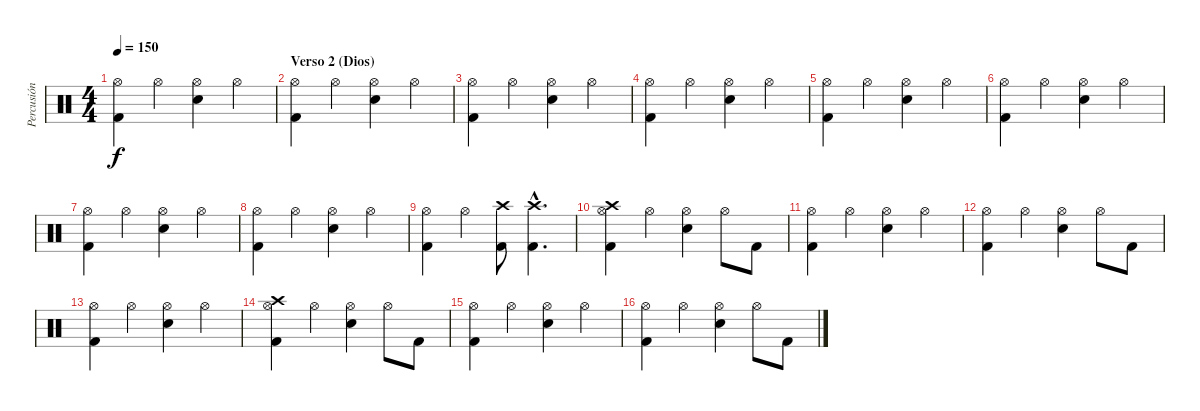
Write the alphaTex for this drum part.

\track ("Percusión" "Percusión") {instrument percussion}
\staff {score}
\articulation defaults
\ts (4 4)
\tempo 150
\clef neutral
\ks c
("Hi-Hat (open)" "Kick (hit) 2").4{dy f} "Hi-Hat (open)".4 ("Hi-Hat (open)" "Snare (hit) 2").4 "Hi-Hat (open)".4 |
\section ("" "Verso 2 (Dios)")
("Hi-Hat (open)" "Kick (hit) 2").4 "Hi-Hat (open)".4 ("Hi-Hat (open)" "Snare (hit) 2").4 "Hi-Hat (open)".4 |
("Hi-Hat (open)" "Kick (hit) 2").4 "Hi-Hat (open)".4 ("Hi-Hat (open)" "Snare (hit) 2").4 "Hi-Hat (open)".4 |
("Hi-Hat (open)" "Kick (hit) 2").4 "Hi-Hat (open)".4 ("Hi-Hat (open)" "Snare (hit) 2").4 "Hi-Hat (open)".4 |
("Hi-Hat (open)" "Kick (hit) 2").4 "Hi-Hat (open)".4 ("Hi-Hat (open)" "Snare (hit) 2").4 "Hi-Hat (open)".4 |
("Hi-Hat (open)" "Kick (hit) 2").4 "Hi-Hat (open)".4 ("Hi-Hat (open)" "Snare (hit) 2").4 "Hi-Hat (open)".4 |
("Hi-Hat (open)" "Kick (hit) 2").4 "Hi-Hat (open)".4 ("Hi-Hat (open)" "Snare (hit) 2").4 "Hi-Hat (open)".4 |
("Hi-Hat (open)" "Kick (hit) 2").4 "Hi-Hat (open)".4 ("Hi-Hat (open)" "Snare (hit) 2").4 "Hi-Hat (open)".4 |
("Hi-Hat (open)" "Kick (hit) 2").4 "Hi-Hat (open)".4 ("Crash high (hit)" "Kick (hit) 2").8 ("Crash high (hit)"{hac} "Kick (hit) 2"{hac}).4{d} |
("Crash high (hit)" "Hi-Hat (open)" "Kick (hit) 2").4 "Hi-Hat (open)".4 ("Hi-Hat (open)" "Snare (hit) 2").4 "Hi-Hat (open)".8 "Kick (hit) 2".8 |
("Hi-Hat (open)" "Kick (hit) 2").4 "Hi-Hat (open)".4 ("Hi-Hat (open)" "Snare (hit) 2").4 "Hi-Hat (open)".4 |
("Hi-Hat (open)" "Kick (hit) 2").4 "Hi-Hat (open)".4 ("Hi-Hat (open)" "Snare (hit) 2").4 "Hi-Hat (open)".8 "Kick (hit) 2".8 |
("Hi-Hat (open)" "Kick (hit) 2").4 "Hi-Hat (open)".4 ("Hi-Hat (open)" "Snare (hit) 2").4 "Hi-Hat (open)".4 |
("Crash high (hit)" "Hi-Hat (open)" "Kick (hit) 2").4 "Hi-Hat (open)".4 ("Hi-Hat (open)" "Snare (hit) 2").4 "Hi-Hat (open)".8 "Kick (hit) 2".8 |
("Hi-Hat (open)" "Kick (hit) 2").4 "Hi-Hat (open)".4 ("Hi-Hat (open)" "Snare (hit) 2").4 "Hi-Hat (open)".4 |
("Hi-Hat (open)" "Kick (hit) 2").4 "Hi-Hat (open)".4 ("Hi-Hat (open)" "Snare (hit) 2").4 "Hi-Hat (open)".8 "Kick (hit) 2".8
